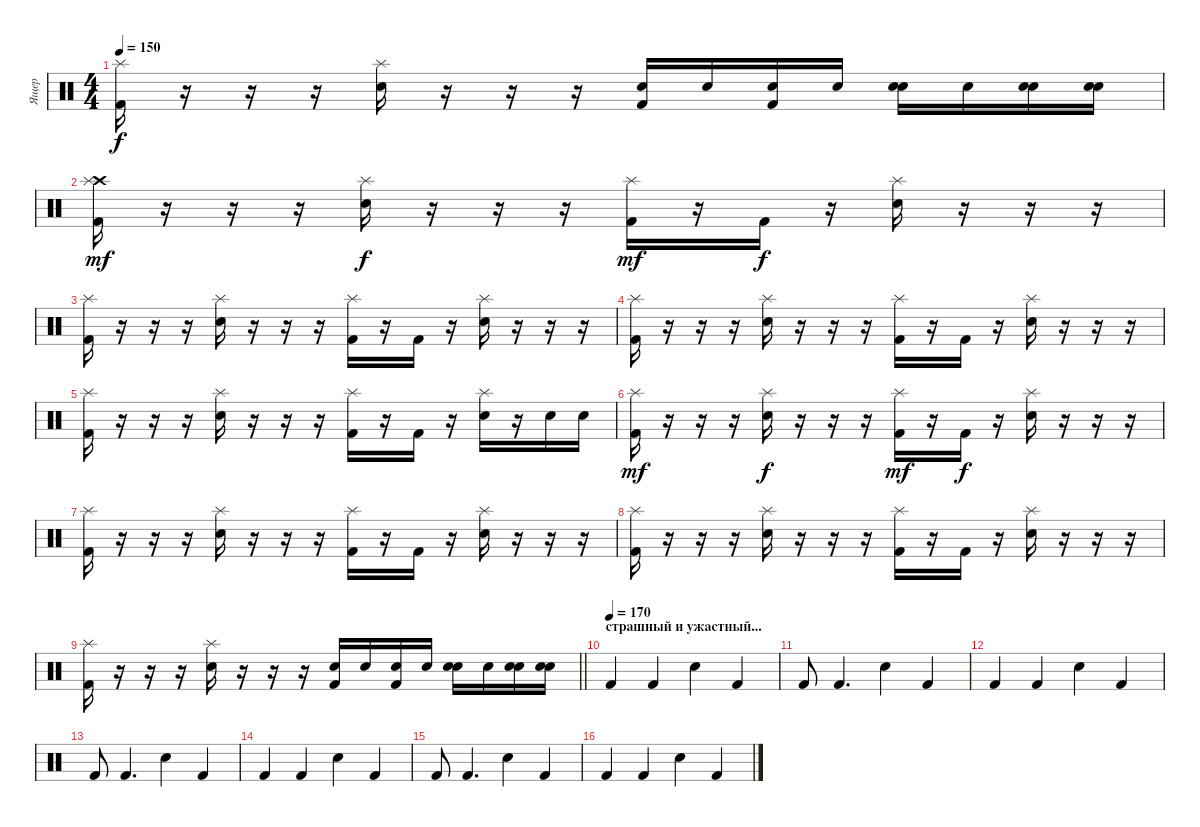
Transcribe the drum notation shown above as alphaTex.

\track ("Ящер" "Ящер") {instrument percussion}
\staff {score}
\articulation defaults
\ts (4 4)
\tempo 150
\clef neutral
\ks c
("Kick (hit) 2" "Splash (hit)").16{dy f} r.16 r.16 r.16 ("Snare (hit) 2" "Splash (hit)").16 r.16 r.16 r.16 ("Kick (hit) 2" "Snare (hit) 2").16 "Snare (hit) 2".16 ("Kick (hit) 2" "Snare (hit) 2").16 "Snare (hit) 2".16 ("Snare (hit) 2" "Snare (hit) 2").16 "Snare (hit) 2".16 ("Snare (hit) 2" "Snare (hit) 2").16 ("Snare (hit) 2" "Snare (hit) 2").16 |
("Kick (hit) 2" "Crash high (hit)" "Splash (hit)").16{dy mf} r.16 r.16 r.16 ("Snare (hit) 2" "Splash (hit)").16{dy f} r.16 r.16 r.16 ("Kick (hit) 2" "Splash (hit)").16{dy mf} r.16 "Kick (hit) 2".16{dy f} r.16 ("Snare (hit) 2" "Splash (hit)").16 r.16 r.16 r.16 |
("Kick (hit) 2" "Splash (hit)").16 r.16 r.16 r.16 ("Snare (hit) 2" "Splash (hit)").16 r.16 r.16 r.16 ("Kick (hit) 2" "Splash (hit)").16 r.16 "Kick (hit) 2".16 r.16 ("Snare (hit) 2" "Splash (hit)").16 r.16 r.16 r.16 |
("Kick (hit) 2" "Splash (hit)").16 r.16 r.16 r.16 ("Snare (hit) 2" "Splash (hit)").16 r.16 r.16 r.16 ("Kick (hit) 2" "Splash (hit)").16 r.16 "Kick (hit) 2".16 r.16 ("Snare (hit) 2" "Splash (hit)").16 r.16 r.16 r.16 |
("Kick (hit) 2" "Splash (hit)").16 r.16 r.16 r.16 ("Snare (hit) 2" "Splash (hit)").16 r.16 r.16 r.16 ("Kick (hit) 2" "Splash (hit)").16 r.16 "Kick (hit) 2".16 r.16 ("Snare (hit) 2" "Splash (hit)").16 r.16 "Snare (hit) 2".16 "Snare (hit) 2".16 |
("Kick (hit) 2" "Splash (hit)").16{dy mf} r.16 r.16 r.16 ("Snare (hit) 2" "Splash (hit)").16{dy f} r.16 r.16 r.16 ("Kick (hit) 2" "Splash (hit)").16{dy mf} r.16 "Kick (hit) 2".16{dy f} r.16 ("Snare (hit) 2" "Splash (hit)").16 r.16 r.16 r.16 |
("Kick (hit) 2" "Splash (hit)").16 r.16 r.16 r.16 ("Snare (hit) 2" "Splash (hit)").16 r.16 r.16 r.16 ("Kick (hit) 2" "Splash (hit)").16 r.16 "Kick (hit) 2".16 r.16 ("Snare (hit) 2" "Splash (hit)").16 r.16 r.16 r.16 |
("Kick (hit) 2" "Splash (hit)").16 r.16 r.16 r.16 ("Snare (hit) 2" "Splash (hit)").16 r.16 r.16 r.16 ("Kick (hit) 2" "Splash (hit)").16 r.16 "Kick (hit) 2".16 r.16 ("Snare (hit) 2" "Splash (hit)").16 r.16 r.16 r.16 |
\barLineRight lightlight
("Kick (hit) 2" "Splash (hit)").16 r.16 r.16 r.16 ("Snare (hit) 2" "Splash (hit)").16 r.16 r.16 r.16 ("Kick (hit) 2" "Snare (hit) 2").16 "Snare (hit) 2".16 ("Kick (hit) 2" "Snare (hit) 2").16 "Snare (hit) 2".16 ("Snare (hit) 2" "Snare (hit) 2").16 "Snare (hit) 2".16 ("Snare (hit) 2" "Snare (hit) 2").16 ("Snare (hit) 2" "Snare (hit) 2").16 |
\section ("" "страшный и ужастный...")
\tempo (170)
"Kick (hit) 2".4 "Kick (hit) 2".4 "Snare (hit) 2".4 "Kick (hit) 2".4 |
"Kick (hit) 2".8 "Kick (hit) 2".4{d} "Snare (hit) 2".4 "Kick (hit) 2".4 |
"Kick (hit) 2".4 "Kick (hit) 2".4 "Snare (hit) 2".4 "Kick (hit) 2".4 |
"Kick (hit) 2".8 "Kick (hit) 2".4{d} "Snare (hit) 2".4 "Kick (hit) 2".4 |
"Kick (hit) 2".4 "Kick (hit) 2".4 "Snare (hit) 2".4 "Kick (hit) 2".4 |
"Kick (hit) 2".8 "Kick (hit) 2".4{d} "Snare (hit) 2".4 "Kick (hit) 2".4 |
"Kick (hit) 2".4 "Kick (hit) 2".4 "Snare (hit) 2".4 "Kick (hit) 2".4
